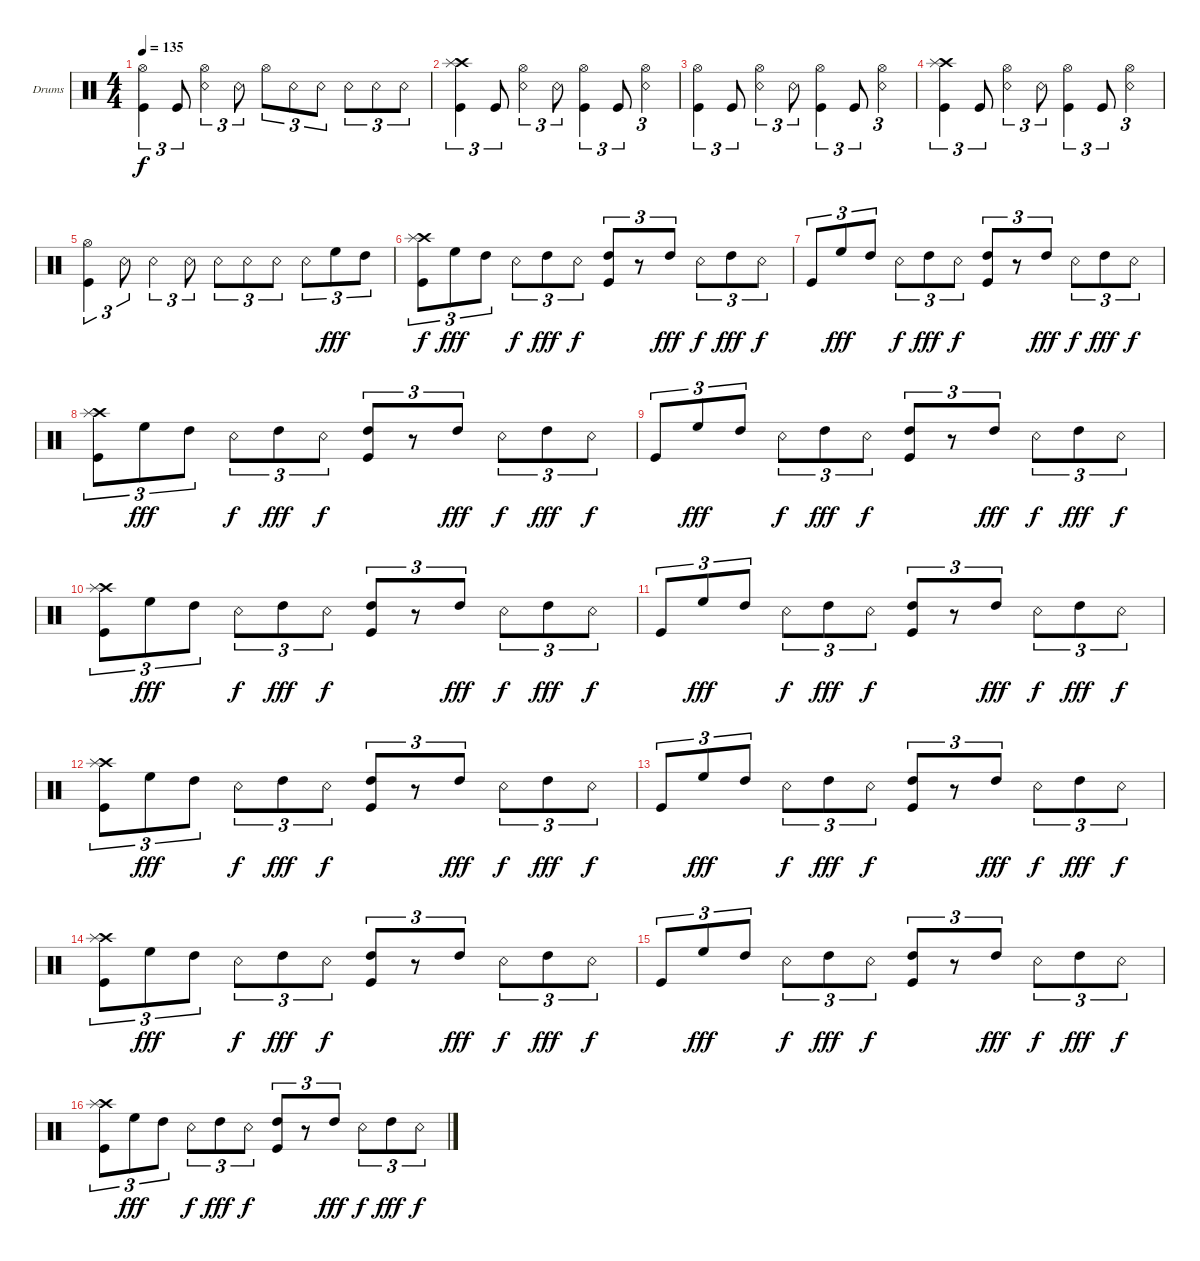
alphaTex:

\bracketExtendMode groupsimilarinstruments
\firstSystemTrackNameOrientation horizontal
\otherSystemsTrackNameOrientation horizontal
\track ("Drumkit" "Drums") {instrument percussion}
\staff {score}
\articulation defaults
\ts (4 4)
\tempo 135
\clef neutral
\scale
0.333333
\ks c
("Kick (hit)" "Hi-Hat (open)").4{tu (3 2) dy f} "Kick (hit)".8{tu (3 2)} ("Snare (rim shot)" "Hi-Hat (open)").4{tu (3 2)} "Snare (rim shot)".8{tu (3 2)} "Hi-Hat (open)".8{tu (3 2)} "Snare (rim shot)".8{tu (3 2)} "Snare (rim shot)".8{tu (3 2)} "Snare (rim shot)".8{tu (3 2)} "Snare (rim shot)".8{tu (3 2)} "Snare (rim shot)".8{tu (3 2)} |
\scale
0.333333 ("Kick (hit)" "Crash high (hit)" "Splash (hit)").4{tu (3 2)} "Kick (hit)".8{tu (3 2)} ("Snare (rim shot)" "Hi-Hat (open)").4{tu (3 2)} "Snare (rim shot)".8{tu (3 2)} ("Kick (hit)" "Hi-Hat (open)").4{tu (3 2)} "Kick (hit)".8{tu (3 2)} ("Snare (rim shot)" "Hi-Hat (open)").4{tu (3 2)} |
\scale
0.333333 ("Kick (hit)" "Hi-Hat (open)").4{tu (3 2)} "Kick (hit)".8{tu (3 2)} ("Snare (rim shot)" "Hi-Hat (open)").4{tu (3 2)} "Snare (rim shot)".8{tu (3 2)} ("Kick (hit)" "Hi-Hat (open)").4{tu (3 2)} "Kick (hit)".8{tu (3 2)} ("Snare (rim shot)" "Hi-Hat (open)").4{tu (3 2)} |
\scale
0.333333 ("Kick (hit)" "Crash high (hit)" "Splash (hit)").4{tu (3 2)} "Kick (hit)".8{tu (3 2)} ("Snare (rim shot)" "Hi-Hat (open)").4{tu (3 2)} "Snare (rim shot)".8{tu (3 2)} ("Kick (hit)" "Hi-Hat (open)").4{tu (3 2)} "Kick (hit)".8{tu (3 2)} ("Snare (rim shot)" "Hi-Hat (open)").4{tu (3 2)} |
\scale
0.333333 ("Kick (hit)" "Hi-Hat (open)").4{tu (3 2)} "Snare (rim shot)".8{tu (3 2)} "Snare (rim shot)".4{tu (3 2)} "Snare (rim shot)".8{tu (3 2)} "Snare (rim shot)".8{tu (3 2)} "Snare (rim shot)".8{tu (3 2)} "Snare (rim shot)".8{tu (3 2)} "Snare (rim shot)".8{tu (3 2)} "High Floor Tom (hit)".8{tu (3 2) dy fff} "High Tom (hit)".8{tu (3 2)} |
\scale
0.333333 ("Kick (hit)" "Crash high (hit)" "Splash (hit)").8{tu (3 2) dy f} "High Floor Tom (hit)".8{tu (3 2) dy fff} "High Tom (hit)".8{tu (3 2)} "Snare (rim shot)".8{tu (3 2) dy f} "High Tom (hit)".8{tu (3 2) dy fff} "Snare (rim shot)".8{tu (3 2) dy f} ("Kick (hit)" "High Tom (hit)").8{tu (3 2)} r.8{tu (3 2)} "High Tom (hit)".8{tu (3 2) dy fff} "Snare (rim shot)".8{tu (3 2) dy f} "High Tom (hit)".8{tu (3 2) dy fff} "Snare (rim shot)".8{tu (3 2) dy f} |
\scale
0.333333 "Kick (hit)".8{tu (3 2)} "High Floor Tom (hit)".8{tu (3 2) dy fff} "High Tom (hit)".8{tu (3 2)} "Snare (rim shot)".8{tu (3 2) dy f} "High Tom (hit)".8{tu (3 2) dy fff} "Snare (rim shot)".8{tu (3 2) dy f} ("Kick (hit)" "High Tom (hit)").8{tu (3 2)} r.8{tu (3 2)} "High Tom (hit)".8{tu (3 2) dy fff} "Snare (rim shot)".8{tu (3 2) dy f} "High Tom (hit)".8{tu (3 2) dy fff} "Snare (rim shot)".8{tu (3 2) dy f} |
\scale
0.333333 ("Kick (hit)" "Crash high (hit)" "Splash (hit)").8{tu (3 2)} "High Floor Tom (hit)".8{tu (3 2) dy fff} "High Tom (hit)".8{tu (3 2)} "Snare (rim shot)".8{tu (3 2) dy f} "High Tom (hit)".8{tu (3 2) dy fff} "Snare (rim shot)".8{tu (3 2) dy f} ("Kick (hit)" "High Tom (hit)").8{tu (3 2)} r.8{tu (3 2)} "High Tom (hit)".8{tu (3 2) dy fff} "Snare (rim shot)".8{tu (3 2) dy f} "High Tom (hit)".8{tu (3 2) dy fff} "Snare (rim shot)".8{tu (3 2) dy f} |
\scale
0.333333 "Kick (hit)".8{tu (3 2)} "High Floor Tom (hit)".8{tu (3 2) dy fff} "High Tom (hit)".8{tu (3 2)} "Snare (rim shot)".8{tu (3 2) dy f} "High Tom (hit)".8{tu (3 2) dy fff} "Snare (rim shot)".8{tu (3 2) dy f} ("Kick (hit)" "High Tom (hit)").8{tu (3 2)} r.8{tu (3 2)} "High Tom (hit)".8{tu (3 2) dy fff} "Snare (rim shot)".8{tu (3 2) dy f} "High Tom (hit)".8{tu (3 2) dy fff} "Snare (rim shot)".8{tu (3 2) dy f} |
\scale
0.333333 ("Kick (hit)" "Crash high (hit)" "Splash (hit)").8{tu (3 2)} "High Floor Tom (hit)".8{tu (3 2) dy fff} "High Tom (hit)".8{tu (3 2)} "Snare (rim shot)".8{tu (3 2) dy f} "High Tom (hit)".8{tu (3 2) dy fff} "Snare (rim shot)".8{tu (3 2) dy f} ("Kick (hit)" "High Tom (hit)").8{tu (3 2)} r.8{tu (3 2)} "High Tom (hit)".8{tu (3 2) dy fff} "Snare (rim shot)".8{tu (3 2) dy f} "High Tom (hit)".8{tu (3 2) dy fff} "Snare (rim shot)".8{tu (3 2) dy f} |
\scale
0.333333 "Kick (hit)".8{tu (3 2)} "High Floor Tom (hit)".8{tu (3 2) dy fff} "High Tom (hit)".8{tu (3 2)} "Snare (rim shot)".8{tu (3 2) dy f} "High Tom (hit)".8{tu (3 2) dy fff} "Snare (rim shot)".8{tu (3 2) dy f} ("Kick (hit)" "High Tom (hit)").8{tu (3 2)} r.8{tu (3 2)} "High Tom (hit)".8{tu (3 2) dy fff} "Snare (rim shot)".8{tu (3 2) dy f} "High Tom (hit)".8{tu (3 2) dy fff} "Snare (rim shot)".8{tu (3 2) dy f} |
\scale
0.333333 ("Kick (hit)" "Crash high (hit)" "Splash (hit)").8{tu (3 2)} "High Floor Tom (hit)".8{tu (3 2) dy fff} "High Tom (hit)".8{tu (3 2)} "Snare (rim shot)".8{tu (3 2) dy f} "High Tom (hit)".8{tu (3 2) dy fff} "Snare (rim shot)".8{tu (3 2) dy f} ("Kick (hit)" "High Tom (hit)").8{tu (3 2)} r.8{tu (3 2)} "High Tom (hit)".8{tu (3 2) dy fff} "Snare (rim shot)".8{tu (3 2) dy f} "High Tom (hit)".8{tu (3 2) dy fff} "Snare (rim shot)".8{tu (3 2) dy f} |
\scale
0.333333 "Kick (hit)".8{tu (3 2)} "High Floor Tom (hit)".8{tu (3 2) dy fff} "High Tom (hit)".8{tu (3 2)} "Snare (rim shot)".8{tu (3 2) dy f} "High Tom (hit)".8{tu (3 2) dy fff} "Snare (rim shot)".8{tu (3 2) dy f} ("Kick (hit)" "High Tom (hit)").8{tu (3 2)} r.8{tu (3 2)} "High Tom (hit)".8{tu (3 2) dy fff} "Snare (rim shot)".8{tu (3 2) dy f} "High Tom (hit)".8{tu (3 2) dy fff} "Snare (rim shot)".8{tu (3 2) dy f} |
\scale
0.333333 ("Kick (hit)" "Crash high (hit)" "Splash (hit)").8{tu (3 2)} "High Floor Tom (hit)".8{tu (3 2) dy fff} "High Tom (hit)".8{tu (3 2)} "Snare (rim shot)".8{tu (3 2) dy f} "High Tom (hit)".8{tu (3 2) dy fff} "Snare (rim shot)".8{tu (3 2) dy f} ("Kick (hit)" "High Tom (hit)").8{tu (3 2)} r.8{tu (3 2)} "High Tom (hit)".8{tu (3 2) dy fff} "Snare (rim shot)".8{tu (3 2) dy f} "High Tom (hit)".8{tu (3 2) dy fff} "Snare (rim shot)".8{tu (3 2) dy f} |
\scale
0.333333 "Kick (hit)".8{tu (3 2)} "High Floor Tom (hit)".8{tu (3 2) dy fff} "High Tom (hit)".8{tu (3 2)} "Snare (rim shot)".8{tu (3 2) dy f} "High Tom (hit)".8{tu (3 2) dy fff} "Snare (rim shot)".8{tu (3 2) dy f} ("Kick (hit)" "High Tom (hit)").8{tu (3 2)} r.8{tu (3 2)} "High Tom (hit)".8{tu (3 2) dy fff} "Snare (rim shot)".8{tu (3 2) dy f} "High Tom (hit)".8{tu (3 2) dy fff} "Snare (rim shot)".8{tu (3 2) dy f} |
\scale
0.333333 ("Kick (hit)" "Crash high (hit)" "Splash (hit)").8{tu (3 2)} "High Floor Tom (hit)".8{tu (3 2) dy fff} "High Tom (hit)".8{tu (3 2)} "Snare (rim shot)".8{tu (3 2) dy f} "High Tom (hit)".8{tu (3 2) dy fff} "Snare (rim shot)".8{tu (3 2) dy f} ("Kick (hit)" "High Tom (hit)").8{tu (3 2)} r.8{tu (3 2)} "High Tom (hit)".8{tu (3 2) dy fff} "Snare (rim shot)".8{tu (3 2) dy f} "High Tom (hit)".8{tu (3 2) dy fff} "Snare (rim shot)".8{tu (3 2) dy f}
